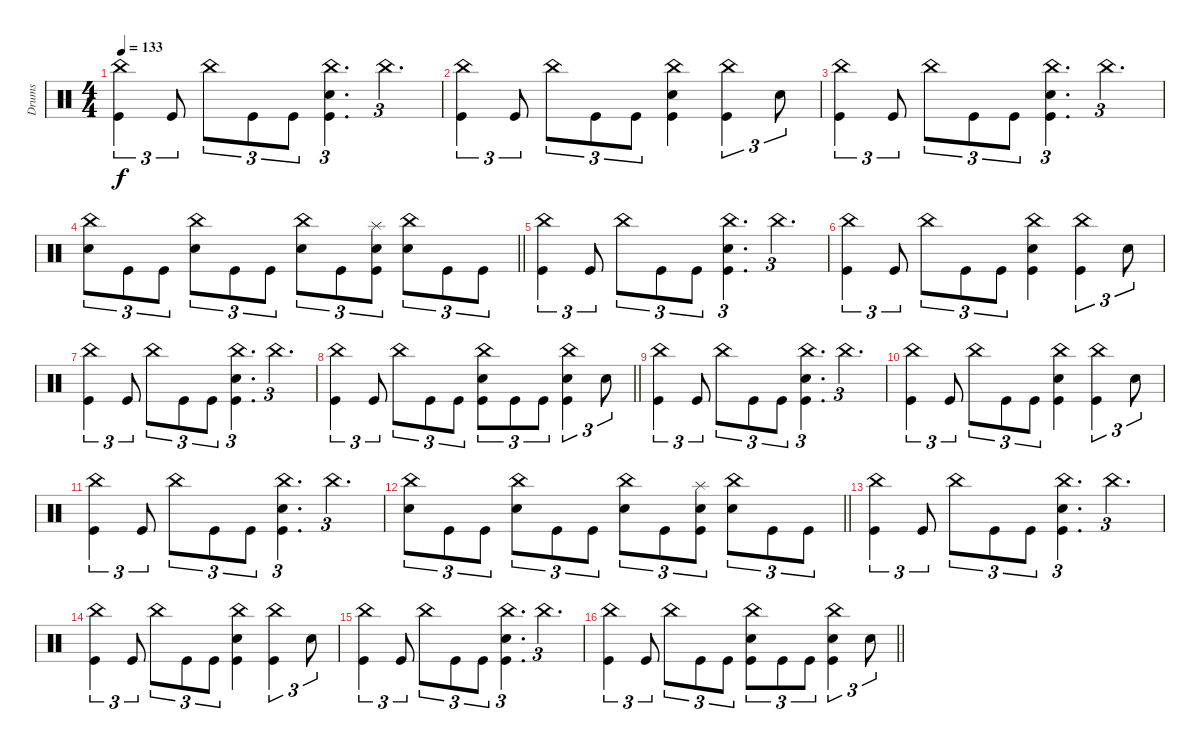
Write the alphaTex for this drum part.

\track ("Drums" "Drums") {instrument percussion}
\staff
\articulation defaults
\ts (4 4)
\tempo 133
\clef neutral
\ks c
("China (hit)" "Kick (hit)").4{tu (3 2) dy f} "Kick (hit)".8{tu (3 2)} "China (hit)".8{tu (3 2)} "Kick (hit)".8{tu (3 2)} "Kick (hit)".8{tu (3 2)} ("China (hit)" "Electric Snare (hit)" "Kick (hit)").4{d tu (3 2)} "China (hit)".4{d tu (3 2)} |
("China (hit)" "Kick (hit)").4{tu (3 2)} "Kick (hit)".8{tu (3 2)} "China (hit)".8{tu (3 2)} "Kick (hit)".8{tu (3 2)} "Kick (hit)".8{tu (3 2)} ("China (hit)" "Electric Snare (hit)" "Kick (hit)").4 ("China (hit)" "Kick (hit)").4{tu (3 2)} "Electric Snare (hit)".8{tu (3 2)} |
("China (hit)" "Kick (hit)").4{tu (3 2)} "Kick (hit)".8{tu (3 2)} "China (hit)".8{tu (3 2)} "Kick (hit)".8{tu (3 2)} "Kick (hit)".8{tu (3 2)} ("China (hit)" "Electric Snare (hit)" "Kick (hit)").4{d tu (3 2)} "China (hit)".4{d tu (3 2)} |
\barLineRight lightlight
("China (hit)" "Electric Snare (hit)").8{tu (3 2)} "Kick (hit)".8{tu (3 2)} "Kick (hit)".8{tu (3 2)} ("China (hit)" "Electric Snare (hit)").8{tu (3 2)} "Kick (hit)".8{tu (3 2)} "Kick (hit)".8{tu (3 2)} ("China (hit)" "Electric Snare (hit)").8{tu (3 2)} "Kick (hit)".8{tu (3 2)} ("Splash (hit)" "Electric Snare (hit)" "Kick (hit)").8{tu (3 2)} ("China (hit)" "Electric Snare (hit)").8{tu (3 2)} "Kick (hit)".8{tu (3 2)} "Kick (hit)".8{tu (3 2)} |
("China (hit)" "Kick (hit)").4{tu (3 2)} "Kick (hit)".8{tu (3 2)} "China (hit)".8{tu (3 2)} "Kick (hit)".8{tu (3 2)} "Kick (hit)".8{tu (3 2)} ("China (hit)" "Electric Snare (hit)" "Kick (hit)").4{d tu (3 2)} "China (hit)".4{d tu (3 2)} |
("China (hit)" "Kick (hit)").4{tu (3 2)} "Kick (hit)".8{tu (3 2)} "China (hit)".8{tu (3 2)} "Kick (hit)".8{tu (3 2)} "Kick (hit)".8{tu (3 2)} ("China (hit)" "Electric Snare (hit)" "Kick (hit)").4 ("China (hit)" "Kick (hit)").4{tu (3 2)} "Electric Snare (hit)".8{tu (3 2)} |
("China (hit)" "Kick (hit)").4{tu (3 2)} "Kick (hit)".8{tu (3 2)} "China (hit)".8{tu (3 2)} "Kick (hit)".8{tu (3 2)} "Kick (hit)".8{tu (3 2)} ("China (hit)" "Electric Snare (hit)" "Kick (hit)").4{d tu (3 2)} "China (hit)".4{d tu (3 2)} |
\barLineRight lightlight
("China (hit)" "Kick (hit)").4{tu (3 2)} "Kick (hit)".8{tu (3 2)} "China (hit)".8{tu (3 2)} "Kick (hit)".8{tu (3 2)} "Kick (hit)".8{tu (3 2)} ("China (hit)" "Electric Snare (hit)" "Kick (hit)").8{tu (3 2)} "Kick (hit)".8{tu (3 2)} "Kick (hit)".8{tu (3 2)} ("China (hit)" "Electric Snare (hit)" "Kick (hit)").4{tu (3 2)} "Electric Snare (hit)".8{tu (3 2)} |
("China (hit)" "Kick (hit)").4{tu (3 2)} "Kick (hit)".8{tu (3 2)} "China (hit)".8{tu (3 2)} "Kick (hit)".8{tu (3 2)} "Kick (hit)".8{tu (3 2)} ("China (hit)" "Electric Snare (hit)" "Kick (hit)").4{d tu (3 2)} "China (hit)".4{d tu (3 2)} |
("China (hit)" "Kick (hit)").4{tu (3 2)} "Kick (hit)".8{tu (3 2)} "China (hit)".8{tu (3 2)} "Kick (hit)".8{tu (3 2)} "Kick (hit)".8{tu (3 2)} ("China (hit)" "Electric Snare (hit)" "Kick (hit)").4 ("China (hit)" "Kick (hit)").4{tu (3 2)} "Electric Snare (hit)".8{tu (3 2)} |
("China (hit)" "Kick (hit)").4{tu (3 2)} "Kick (hit)".8{tu (3 2)} "China (hit)".8{tu (3 2)} "Kick (hit)".8{tu (3 2)} "Kick (hit)".8{tu (3 2)} ("China (hit)" "Electric Snare (hit)" "Kick (hit)").4{d tu (3 2)} "China (hit)".4{d tu (3 2)} |
\barLineRight lightlight
("China (hit)" "Electric Snare (hit)").8{tu (3 2)} "Kick (hit)".8{tu (3 2)} "Kick (hit)".8{tu (3 2)} ("China (hit)" "Electric Snare (hit)").8{tu (3 2)} "Kick (hit)".8{tu (3 2)} "Kick (hit)".8{tu (3 2)} ("China (hit)" "Electric Snare (hit)").8{tu (3 2)} "Kick (hit)".8{tu (3 2)} ("Splash (hit)" "Electric Snare (hit)" "Kick (hit)").8{tu (3 2)} ("China (hit)" "Electric Snare (hit)").8{tu (3 2)} "Kick (hit)".8{tu (3 2)} "Kick (hit)".8{tu (3 2)} |
("China (hit)" "Kick (hit)").4{tu (3 2)} "Kick (hit)".8{tu (3 2)} "China (hit)".8{tu (3 2)} "Kick (hit)".8{tu (3 2)} "Kick (hit)".8{tu (3 2)} ("China (hit)" "Electric Snare (hit)" "Kick (hit)").4{d tu (3 2)} "China (hit)".4{d tu (3 2)} |
("China (hit)" "Kick (hit)").4{tu (3 2)} "Kick (hit)".8{tu (3 2)} "China (hit)".8{tu (3 2)} "Kick (hit)".8{tu (3 2)} "Kick (hit)".8{tu (3 2)} ("China (hit)" "Electric Snare (hit)" "Kick (hit)").4 ("China (hit)" "Kick (hit)").4{tu (3 2)} "Electric Snare (hit)".8{tu (3 2)} |
("China (hit)" "Kick (hit)").4{tu (3 2)} "Kick (hit)".8{tu (3 2)} "China (hit)".8{tu (3 2)} "Kick (hit)".8{tu (3 2)} "Kick (hit)".8{tu (3 2)} ("China (hit)" "Electric Snare (hit)" "Kick (hit)").4{d tu (3 2)} "China (hit)".4{d tu (3 2)} |
\barLineRight lightlight
("China (hit)" "Kick (hit)").4{tu (3 2)} "Kick (hit)".8{tu (3 2)} "China (hit)".8{tu (3 2)} "Kick (hit)".8{tu (3 2)} "Kick (hit)".8{tu (3 2)} ("China (hit)" "Electric Snare (hit)" "Kick (hit)").8{tu (3 2)} "Kick (hit)".8{tu (3 2)} "Kick (hit)".8{tu (3 2)} ("China (hit)" "Electric Snare (hit)" "Kick (hit)").4{tu (3 2)} "Electric Snare (hit)".8{tu (3 2)}
